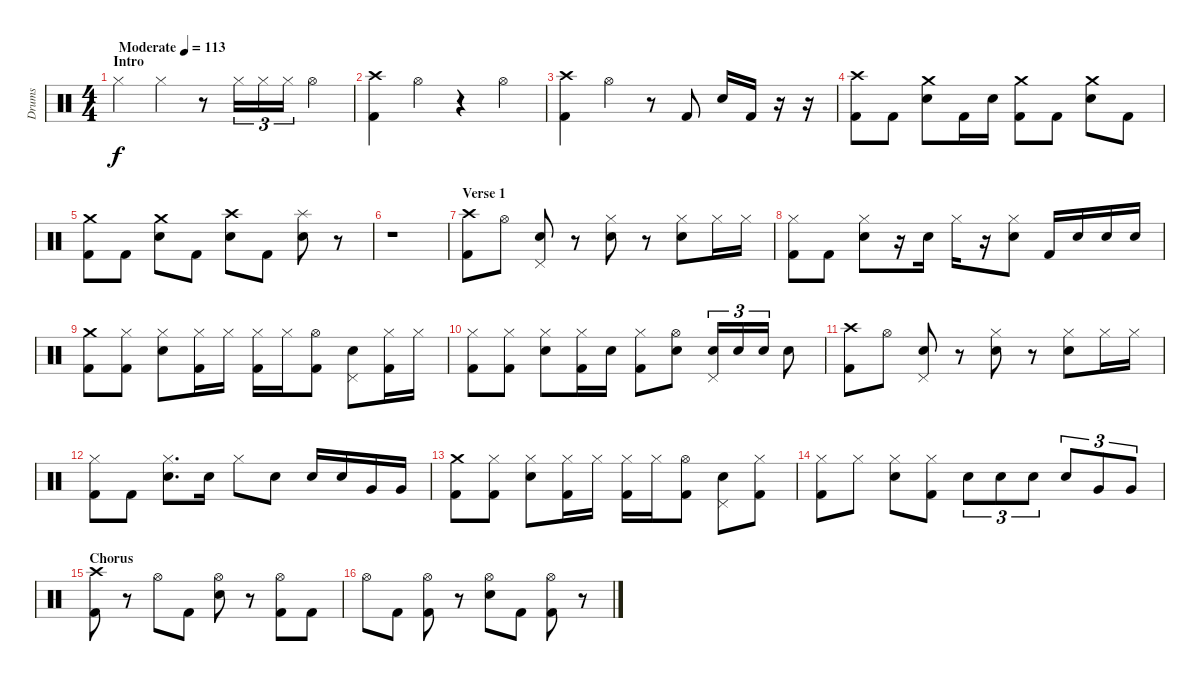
\track ("Drums" "Drums") {instrument percussion}
\staff {score}
\articulation defaults
\ts (4 4)
\section ("" "Intro")
\tempo (113 "Moderate")
\clef neutral
\ks c "Hi-Hat (closed)".4{dy f} "Hi-Hat (closed)".4
r.8 "Hi-Hat (closed)".16{tu (3 2)} "Hi-Hat (closed)".16{tu (3 2)} "Hi-Hat (closed)".16{tu (3 2)} "Hi-Hat (open)".4 |
("Crash high (hit)" "Kick (hit) 2").4 "Hi-Hat (open)".4 r.4 "Hi-Hat (open)".4 |
("Crash high (hit)" "Kick (hit) 2").4 "Hi-Hat (open)".4 r.8 "Kick (hit) 2".8 "Snare (hit) 2".16 "Kick (hit) 2".16 r.16 r.16 |
("Crash high (hit)" "Kick (hit) 2").8 "Kick (hit) 2".8 ("Crash medium (hit)" "Snare (hit) 2").8 "Kick (hit) 2".16 "Snare (hit) 2".16 ("Crash medium (hit)" "Kick (hit) 2").8 "Kick (hit) 2".8 ("Crash medium (hit)" "Snare (hit) 2").8 "Kick (hit) 2".8 |
("Crash medium (hit)" "Kick (hit) 2").8 "Kick (hit) 2".8 ("Crash medium (hit)" "Snare (hit) 2").8 "Kick (hit) 2".8 ("Crash high (hit)" "Snare (hit) 2").8 "Kick (hit) 2".8 ("Splash (hit)" "Snare (hit) 2").8 r.8 |
r.1 |
\section ("" "Verse 1")
("Crash high (hit)" "Kick (hit) 2").8 "Hi-Hat (open)".8 ("Pedal Hi-Hat (hit)" "Snare (hit) 2").8 r.8 ("Hi-Hat (closed)" "Snare (hit) 2").8 r.8 ("Hi-Hat (closed)" "Snare (hit) 2").8 "Hi-Hat (closed)".16 "Hi-Hat (closed)".16 |
("Hi-Hat (closed)" "Kick (hit) 2").8 "Kick (hit) 2".8 ("Hi-Hat (closed)" "Snare (hit) 2").8 r.16 "Snare (hit) 2".16 "Hi-Hat (closed)".16 r.16 ("Hi-Hat (closed)" "Snare (hit) 2").8 "Kick (hit) 2".16 "Snare (hit) 2".16 "Snare (hit) 2".16 "Snare (hit) 2".16 |
("Crash medium (hit)" "Kick (hit) 2").8 ("Hi-Hat (closed)" "Kick (hit) 2").8 ("Hi-Hat (closed)" "Snare (hit) 2").8 ("Hi-Hat (closed)" "Kick (hit) 2").16 "Hi-Hat (closed)".16 ("Hi-Hat (closed)" "Kick (hit) 2").16 "Hi-Hat (closed)".16 ("Hi-Hat (open)" "Kick (hit) 2").8 ("Pedal Hi-Hat (hit)" "Snare (hit) 2").8 ("Hi-Hat (closed)" "Kick (hit) 2").16 "Hi-Hat (closed)".16 |
("Hi-Hat (closed)" "Kick (hit) 2").8 ("Hi-Hat (closed)" "Kick (hit) 2").8 ("Hi-Hat (closed)" "Snare (hit) 2").8 ("Hi-Hat (closed)" "Kick (hit) 2").16 "Snare (hit) 2".16 ("Hi-Hat (closed)" "Kick (hit) 2").8 ("Hi-Hat (open)" "Snare (hit) 2").8 ("Pedal Hi-Hat (hit)" "Snare (hit) 2").16{tu (3 2)} "Snare (hit) 2".16{tu (3 2)} "Snare (hit) 2".16{tu (3 2)} "Snare (hit) 2".8 |
("Crash high (hit)" "Kick (hit) 2").8 "Hi-Hat (open)".8 ("Pedal Hi-Hat (hit)" "Snare (hit) 2").8 r.8 ("Hi-Hat (closed)" "Snare (hit) 2").8 r.8 ("Hi-Hat (closed)" "Snare (hit) 2").8 "Hi-Hat (closed)".16 "Hi-Hat (closed)".16 |
("Hi-Hat (closed)" "Kick (hit) 2").8 "Kick (hit) 2".8 ("Hi-Hat (closed)" "Snare (hit) 2").8{d} "Snare (hit) 2".16 "Hi-Hat (closed)".8 "Snare (hit) 2".8 "Snare (hit) 2".16 "Snare (hit) 2".16 "Very Low Tom (hit)".16 "Very Low Tom (hit)".16 |
("Crash medium (hit)" "Kick (hit) 2").8 ("Hi-Hat (closed)" "Kick (hit) 2").8 ("Hi-Hat (closed)" "Snare (hit) 2").8 ("Hi-Hat (closed)" "Kick (hit) 2").16 "Hi-Hat (closed)".16 ("Hi-Hat (closed)" "Kick (hit) 2").16 "Hi-Hat (closed)".16 ("Hi-Hat (open)" "Kick (hit) 2").8 ("Pedal Hi-Hat (hit)" "Snare (hit) 2").8 ("Hi-Hat (closed)" "Kick (hit) 2").8 |
("Hi-Hat (closed)" "Kick (hit) 2").8 "Hi-Hat (closed)".8 ("Hi-Hat (closed)" "Snare (hit) 2").8 ("Hi-Hat (closed)" "Kick (hit) 2").8 "Snare (hit) 2".8{tu (3 2)} "Snare (hit) 2".8{tu (3 2)} "Snare (hit) 2".8{tu (3 2)} "Snare (hit) 2".8{tu (3 2)} "Very Low Tom (hit)".8{tu (3 2)} "Very Low Tom (hit)".8{tu (3 2)} |
\section ("" "Chorus")
("Crash high (hit)" "Kick (hit) 2").8 r.8 "Hi-Hat (open)".8 "Kick (hit) 2".8 ("Hi-Hat (open)" "Snare (hit) 2").8 r.8 ("Hi-Hat (open)" "Kick (hit) 2").8 "Kick (hit) 2".8 |
"Hi-Hat (open)".8 "Kick (hit) 2".8 ("Hi-Hat (open)" "Kick (hit) 2").8 r.8 ("Hi-Hat (open)" "Snare (hit) 2").8 "Kick (hit) 2".8 ("Hi-Hat (open)" "Kick (hit) 2").8 r.8
